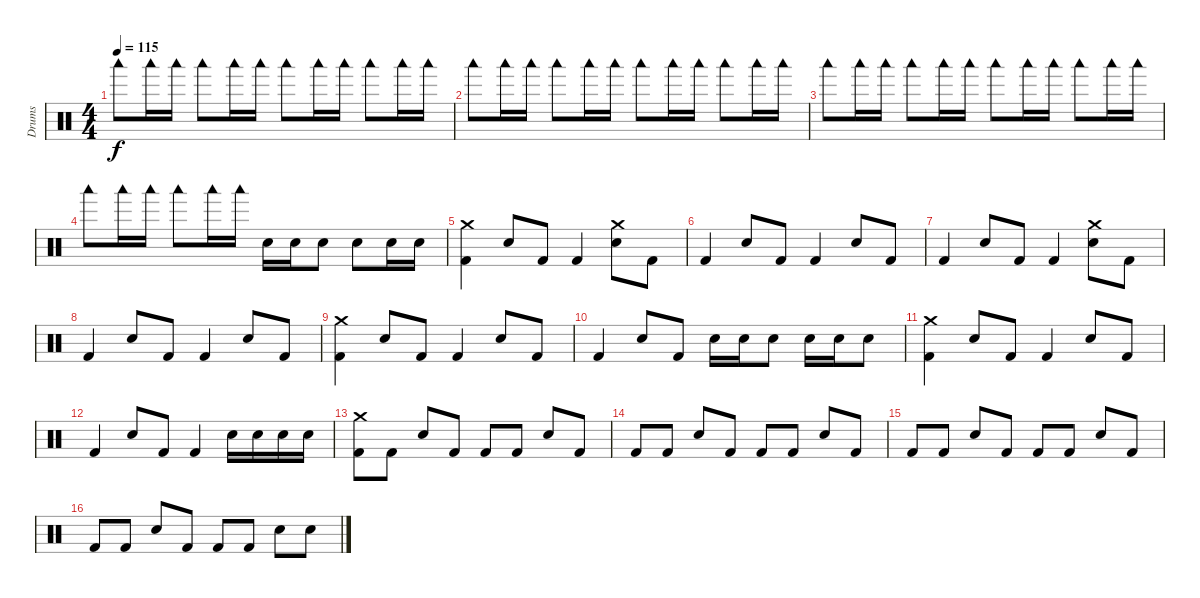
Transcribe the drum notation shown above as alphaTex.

\track ("Drums" "Drums") {instrument percussion}
\staff {score}
\articulation defaults
\ts (4 4)
\tempo 115
\clef neutral
\ks c "Woodblock low (hit)".8{dy f} "Woodblock low (hit)".16 "Woodblock low (hit)".16 "Woodblock low (hit)".8 "Woodblock low (hit)".16 "Woodblock low (hit)".16 "Woodblock low (hit)".8 "Woodblock low (hit)".16 "Woodblock low (hit)".16 "Woodblock low (hit)".8 "Woodblock low (hit)".16 "Woodblock low (hit)".16
|
"Woodblock low (hit)".8 "Woodblock low (hit)".16 "Woodblock low (hit)".16 "Woodblock low (hit)".8 "Woodblock low (hit)".16 "Woodblock low (hit)".16 "Woodblock low (hit)".8 "Woodblock low (hit)".16 "Woodblock low (hit)".16 "Woodblock low (hit)".8 "Woodblock low (hit)".16 "Woodblock low (hit)".16 |
"Woodblock low (hit)".8 "Woodblock low (hit)".16 "Woodblock low (hit)".16 "Woodblock low (hit)".8 "Woodblock low (hit)".16 "Woodblock low (hit)".16 "Woodblock low (hit)".8 "Woodblock low (hit)".16 "Woodblock low (hit)".16 "Woodblock low (hit)".8 "Woodblock low (hit)".16 "Woodblock low (hit)".16 |
"Woodblock low (hit)".8 "Woodblock low (hit)".16 "Woodblock low (hit)".16 "Woodblock low (hit)".8 "Woodblock low (hit)".16 "Woodblock low (hit)".16 "Snare (hit) 2".16 "Snare (hit) 2".16 "Snare (hit) 2".8 "Snare (hit) 2".8 "Snare (hit) 2".16 "Snare (hit) 2".16 |
("Crash medium (hit)" "Kick (hit) 2").4 "Snare (hit) 2".8 "Kick (hit) 2".8 "Kick (hit) 2".4 ("Crash medium (hit)" "Snare (hit) 2").8 "Kick (hit) 2".8 |
"Kick (hit) 2".4 "Snare (hit) 2".8 "Kick (hit) 2".8 "Kick (hit) 2".4 "Snare (hit) 2".8 "Kick (hit) 2".8 |
"Kick (hit) 2".4 "Snare (hit) 2".8 "Kick (hit) 2".8 "Kick (hit) 2".4 ("Crash medium (hit)" "Snare (hit) 2").8 "Kick (hit) 2".8 |
"Kick (hit) 2".4 "Snare (hit) 2".8 "Kick (hit) 2".8 "Kick (hit) 2".4 "Snare (hit) 2".8 "Kick (hit) 2".8 |
("Crash medium (hit)" "Kick (hit) 2").4 "Snare (hit) 2".8 "Kick (hit) 2".8 "Kick (hit) 2".4 "Snare (hit) 2".8 "Kick (hit) 2".8 |
"Kick (hit) 2".4 "Snare (hit) 2".8 "Kick (hit) 2".8 "Snare (hit) 2".16 "Snare (hit) 2".16 "Snare (hit) 2".8 "Snare (hit) 2".16 "Snare (hit) 2".16 "Snare (hit) 2".8 |
("Crash medium (hit)" "Kick (hit) 2").4 "Snare (hit) 2".8 "Kick (hit) 2".8 "Kick (hit) 2".4 "Snare (hit) 2".8 "Kick (hit) 2".8 |
"Kick (hit) 2".4 "Snare (hit) 2".8 "Kick (hit) 2".8 "Kick (hit) 2".4 "Snare (hit) 2".16 "Snare (hit) 2".16 "Snare (hit) 2".16 "Snare (hit) 2".16 |
("Crash medium (hit)" "Kick (hit) 2").8 "Kick (hit) 2".8 "Snare (hit) 2".8 "Kick (hit) 2".8 "Kick (hit) 2".8 "Kick (hit) 2".8 "Snare (hit) 2".8 "Kick (hit) 2".8 |
"Kick (hit) 2".8 "Kick (hit) 2".8 "Snare (hit) 2".8 "Kick (hit) 2".8 "Kick (hit) 2".8 "Kick (hit) 2".8 "Snare (hit) 2".8 "Kick (hit) 2".8 |
"Kick (hit) 2".8 "Kick (hit) 2".8 "Snare (hit) 2".8 "Kick (hit) 2".8 "Kick (hit) 2".8 "Kick (hit) 2".8 "Snare (hit) 2".8 "Kick (hit) 2".8 |
"Kick (hit) 2".8 "Kick (hit) 2".8 "Snare (hit) 2".8 "Kick (hit) 2".8 "Kick (hit) 2".8 "Kick (hit) 2".8 "Snare (hit) 2".8 "Snare (hit) 2".8
